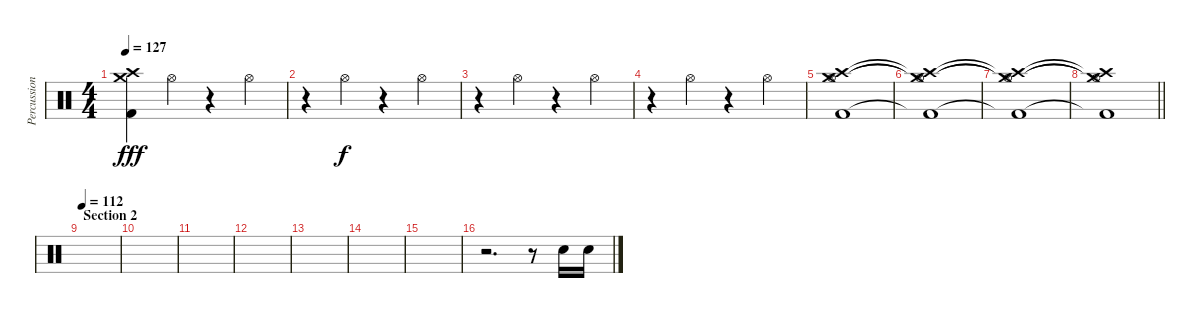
\track ("Percussion" "Percussion") {instrument percussion}
\staff {score}
\articulation defaults
\ts (4 4)
\tempo 127
\clef neutral
\ks c
("Crash high (hit)" "Crash medium (hit)" "Kick (hit) 2").4{dy fff} "Hi-Hat (open)".4 r.4 "Hi-Hat (open)".4 |
r.4 "Hi-Hat (open)".4{dy f} r.4 "Hi-Hat (open)".4 |
r.4 "Hi-Hat (open)".4 r.4 "Hi-Hat (open)".4 |
r.4 "Hi-Hat (open)".4 r.4 "Hi-Hat (open)".4 |
("Crash high (hit)" "Crash medium (hit)" "Hi-Hat (open)" "Kick (hit) 2").1 |
("Crash high (hit)"{t} "Crash medium (hit)"{t} "Hi-Hat (open)"{t} "Kick (hit) 2"{t}).1 |
("Crash high (hit)"{t} "Crash medium (hit)"{t} "Hi-Hat (open)"{t} "Kick (hit) 2"{t}).1 |
\barLineRight lightlight
("Crash high (hit)"{t} "Crash medium (hit)"{t} "Hi-Hat (open)"{t} "Kick (hit) 2"{t}).1 |
\section ("" "Section 2")
\tempo 112
|
|
|
|
|
|
|
r.2{d} r.8 "Snare (hit) 2".16 "Snare (hit) 2".16
